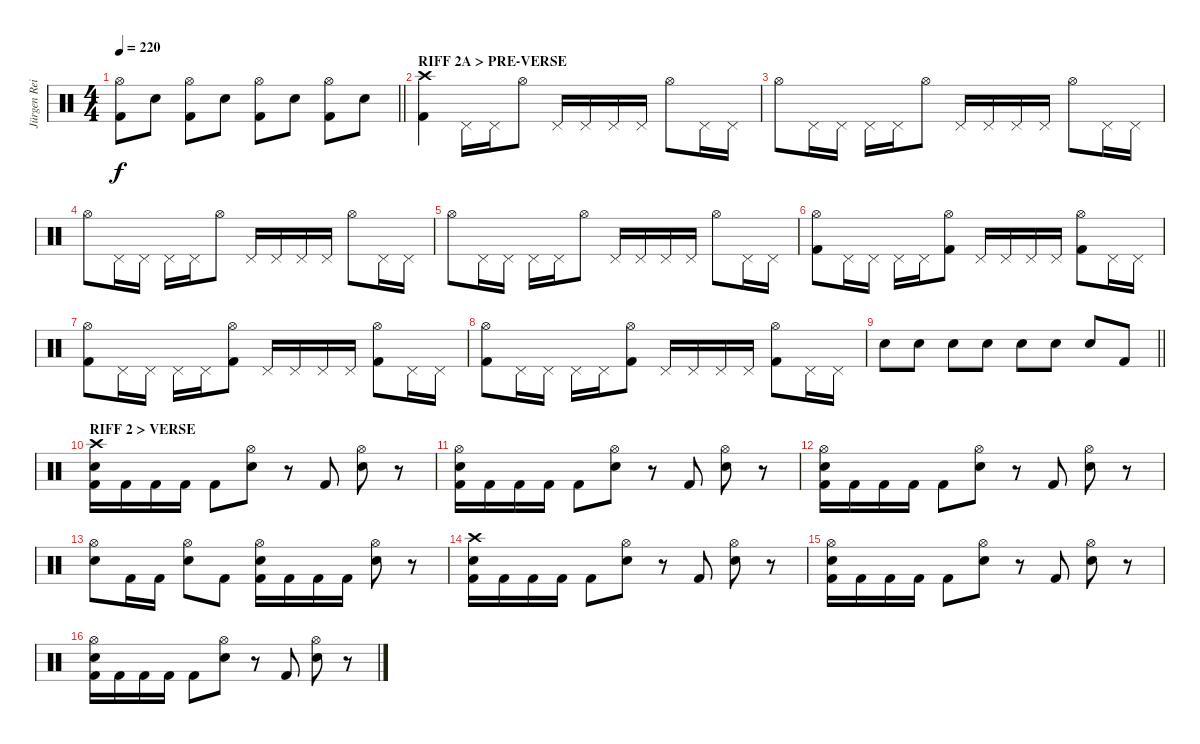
\track ("Jürgen Reil" "Jürgen Rei") {instrument percussion}
\staff {score}
\articulation defaults
\ts (4 4)
\tempo 220
\clef neutral
\barLineRight lightlight
\ks c
("Hi-Hat (open)" "Kick (hit) 2").8{dy f} "Electric Snare (hit)".8 ("Hi-Hat (open)" "Kick (hit) 2").8 "Electric Snare (hit)".8 ("Hi-Hat (open)" "Kick (hit) 2").8 "Electric Snare (hit)".8 ("Hi-Hat (open)" "Kick (hit) 2").8 "Electric Snare (hit)".8 |
\section ("" "RIFF 2A > PRE-VERSE")
("Crash high (hit)" "Kick (hit) 2").4 "Pedal Hi-Hat (hit)".16 "Pedal Hi-Hat (hit)".16 "Hi-Hat (open)".8 "Pedal Hi-Hat (hit)".16 "Pedal Hi-Hat (hit)".16 "Pedal Hi-Hat (hit)".16 "Pedal Hi-Hat (hit)".16 "Hi-Hat (open)".8 "Pedal Hi-Hat (hit)".16 "Pedal Hi-Hat (hit)".16 |
"Hi-Hat (open)".8 "Pedal Hi-Hat (hit)".16 "Pedal Hi-Hat (hit)".16 "Pedal Hi-Hat (hit)".16 "Pedal Hi-Hat (hit)".16 "Hi-Hat (open)".8 "Pedal Hi-Hat (hit)".16 "Pedal Hi-Hat (hit)".16 "Pedal Hi-Hat (hit)".16 "Pedal Hi-Hat (hit)".16 "Hi-Hat (open)".8 "Pedal Hi-Hat (hit)".16 "Pedal Hi-Hat (hit)".16 |
"Hi-Hat (open)".8 "Pedal Hi-Hat (hit)".16 "Pedal Hi-Hat (hit)".16 "Pedal Hi-Hat (hit)".16 "Pedal Hi-Hat (hit)".16 "Hi-Hat (open)".8 "Pedal Hi-Hat (hit)".16 "Pedal Hi-Hat (hit)".16 "Pedal Hi-Hat (hit)".16 "Pedal Hi-Hat (hit)".16 "Hi-Hat (open)".8 "Pedal Hi-Hat (hit)".16 "Pedal Hi-Hat (hit)".16 |
"Hi-Hat (open)".8 "Pedal Hi-Hat (hit)".16 "Pedal Hi-Hat (hit)".16 "Pedal Hi-Hat (hit)".16 "Pedal Hi-Hat (hit)".16 "Hi-Hat (open)".8 "Pedal Hi-Hat (hit)".16 "Pedal Hi-Hat (hit)".16 "Pedal Hi-Hat (hit)".16 "Pedal Hi-Hat (hit)".16 "Hi-Hat (open)".8 "Pedal Hi-Hat (hit)".16 "Pedal Hi-Hat (hit)".16 |
("Hi-Hat (open)" "Kick (hit) 2").8 "Pedal Hi-Hat (hit)".16 "Pedal Hi-Hat (hit)".16 "Pedal Hi-Hat (hit)".16 "Pedal Hi-Hat (hit)".16 ("Hi-Hat (open)" "Kick (hit) 2").8 "Pedal Hi-Hat (hit)".16 "Pedal Hi-Hat (hit)".16 "Pedal Hi-Hat (hit)".16 "Pedal Hi-Hat (hit)".16 ("Hi-Hat (open)" "Kick (hit) 2").8 "Pedal Hi-Hat (hit)".16 "Pedal Hi-Hat (hit)".16 |
("Hi-Hat (open)" "Kick (hit) 2").8 "Pedal Hi-Hat (hit)".16 "Pedal Hi-Hat (hit)".16 "Pedal Hi-Hat (hit)".16 "Pedal Hi-Hat (hit)".16 ("Hi-Hat (open)" "Kick (hit) 2").8 "Pedal Hi-Hat (hit)".16 "Pedal Hi-Hat (hit)".16 "Pedal Hi-Hat (hit)".16 "Pedal Hi-Hat (hit)".16 ("Hi-Hat (open)" "Kick (hit) 2").8 "Pedal Hi-Hat (hit)".16 "Pedal Hi-Hat (hit)".16 |
("Hi-Hat (open)" "Kick (hit) 2").8 "Pedal Hi-Hat (hit)".16 "Pedal Hi-Hat (hit)".16 "Pedal Hi-Hat (hit)".16 "Pedal Hi-Hat (hit)".16 ("Hi-Hat (open)" "Kick (hit) 2").8 "Pedal Hi-Hat (hit)".16 "Pedal Hi-Hat (hit)".16 "Pedal Hi-Hat (hit)".16 "Pedal Hi-Hat (hit)".16 ("Hi-Hat (open)" "Kick (hit) 2").8 "Pedal Hi-Hat (hit)".16 "Pedal Hi-Hat (hit)".16 |
\barLineRight lightlight "Electric Snare (hit)".8 "Electric Snare (hit)".8 "Electric Snare (hit)".8 "Electric Snare (hit)".8 "Electric Snare (hit)".8 "Electric Snare (hit)".8 "Electric Snare (hit)".8 "Kick (hit) 2".8
|
\section ("" "RIFF 2 > VERSE")
("Crash high (hit)" "Electric Snare (hit)" "Kick (hit) 2").16 "Kick (hit) 2".16 "Kick (hit) 2".16 "Kick (hit) 2".16 "Kick (hit) 2".8 ("Hi-Hat (open)" "Electric Snare (hit)").8 r.8 "Kick (hit) 2".8 ("Hi-Hat (open)" "Electric Snare (hit)").8 r.8 |
("Hi-Hat (open)" "Electric Snare (hit)" "Kick (hit) 2").16 "Kick (hit) 2".16 "Kick (hit) 2".16 "Kick (hit) 2".16 "Kick (hit) 2".8 ("Hi-Hat (open)" "Electric Snare (hit)").8 r.8 "Kick (hit) 2".8 ("Hi-Hat (open)" "Electric Snare (hit)").8 r.8 |
("Hi-Hat (open)" "Electric Snare (hit)" "Kick (hit) 2").16 "Kick (hit) 2".16 "Kick (hit) 2".16 "Kick (hit) 2".16 "Kick (hit) 2".8 ("Hi-Hat (open)" "Electric Snare (hit)").8 r.8 "Kick (hit) 2".8 ("Hi-Hat (open)" "Electric Snare (hit)").8 r.8 |
("Hi-Hat (open)" "Electric Snare (hit)").8 "Kick (hit) 2".16 "Kick (hit) 2".16 ("Hi-Hat (open)" "Electric Snare (hit)").8 "Kick (hit) 2".8 ("Hi-Hat (open)" "Electric Snare (hit)" "Kick (hit) 2").16 "Kick (hit) 2".16 "Kick (hit) 2".16 "Kick (hit) 2".16 ("Hi-Hat (open)" "Electric Snare (hit)").8 r.8 |
("Crash high (hit)" "Electric Snare (hit)" "Kick (hit) 2").16 "Kick (hit) 2".16 "Kick (hit) 2".16 "Kick (hit) 2".16 "Kick (hit) 2".8 ("Hi-Hat (open)" "Electric Snare (hit)").8 r.8 "Kick (hit) 2".8 ("Hi-Hat (open)" "Electric Snare (hit)").8 r.8 |
("Hi-Hat (open)" "Electric Snare (hit)" "Kick (hit) 2").16 "Kick (hit) 2".16 "Kick (hit) 2".16 "Kick (hit) 2".16 "Kick (hit) 2".8 ("Hi-Hat (open)" "Electric Snare (hit)").8 r.8 "Kick (hit) 2".8 ("Hi-Hat (open)" "Electric Snare (hit)").8 r.8 |
("Hi-Hat (open)" "Electric Snare (hit)" "Kick (hit) 2").16 "Kick (hit) 2".16 "Kick (hit) 2".16 "Kick (hit) 2".16 "Kick (hit) 2".8 ("Hi-Hat (open)" "Electric Snare (hit)").8 r.8 "Kick (hit) 2".8 ("Hi-Hat (open)" "Electric Snare (hit)").8 r.8
